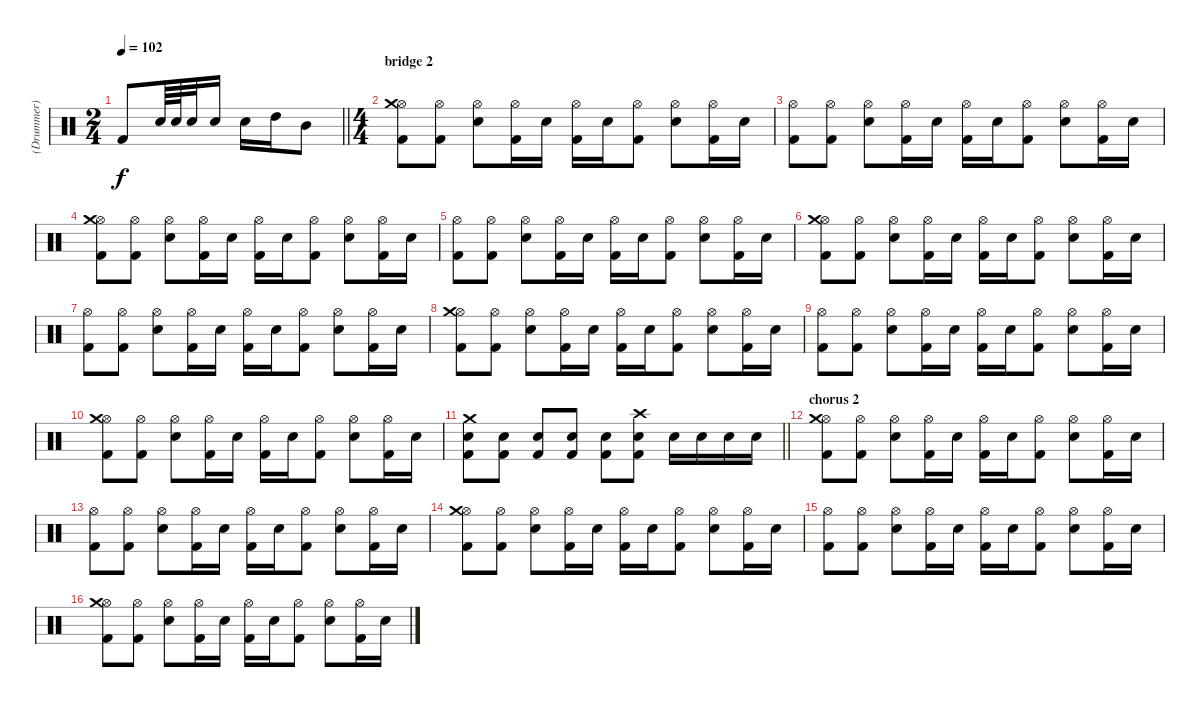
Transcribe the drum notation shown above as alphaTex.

\track ("(Drummer)" "(Drummer)") {solo instrument percussion}
\staff {score}
\articulation defaults
\ts (2 4)
\tempo 102
\clef neutral
\barLineRight lightlight
\ks c "Kick (hit) 2".8{dy f} "Electric Snare (hit)".64 "Electric Snare (hit)".64 "Electric Snare (hit)".32 "Electric Snare (hit)".16 "Electric Snare (hit)".16 "High Tom (hit)".16 "Mid Tom (hit)".8
|
\ts (4 4)
\section ("" "bridge 2")
("Hi-Hat (open)" "Crash medium (hit)" "Kick (hit) 2").8 ("Hi-Hat (open)" "Kick (hit) 2").8 ("Hi-Hat (open)" "Electric Snare (hit)").8 ("Hi-Hat (open)" "Kick (hit) 2").16 "Electric Snare (hit)".16 ("Hi-Hat (open)" "Kick (hit) 2").16 "Electric Snare (hit)".16 ("Hi-Hat (open)" "Kick (hit) 2").8 ("Hi-Hat (open)" "Electric Snare (hit)").8 ("Hi-Hat (open)" "Kick (hit) 2").16 "Electric Snare (hit)".16 |
("Hi-Hat (open)" "Kick (hit) 2").8 ("Hi-Hat (open)" "Kick (hit) 2").8 ("Hi-Hat (open)" "Electric Snare (hit)").8 ("Hi-Hat (open)" "Kick (hit) 2").16 "Electric Snare (hit)".16 ("Hi-Hat (open)" "Kick (hit) 2").16 "Electric Snare (hit)".16 ("Hi-Hat (open)" "Kick (hit) 2").8 ("Hi-Hat (open)" "Electric Snare (hit)").8 ("Hi-Hat (open)" "Kick (hit) 2").16 "Electric Snare (hit)".16 |
("Hi-Hat (open)" "Crash medium (hit)" "Kick (hit) 2").8 ("Hi-Hat (open)" "Kick (hit) 2").8 ("Hi-Hat (open)" "Electric Snare (hit)").8 ("Hi-Hat (open)" "Kick (hit) 2").16 "Electric Snare (hit)".16 ("Hi-Hat (open)" "Kick (hit) 2").16 "Electric Snare (hit)".16 ("Hi-Hat (open)" "Kick (hit) 2").8 ("Hi-Hat (open)" "Electric Snare (hit)").8 ("Hi-Hat (open)" "Kick (hit) 2").16 "Electric Snare (hit)".16 |
("Hi-Hat (open)" "Kick (hit) 2").8 ("Hi-Hat (open)" "Kick (hit) 2").8 ("Hi-Hat (open)" "Electric Snare (hit)").8 ("Hi-Hat (open)" "Kick (hit) 2").16 "Electric Snare (hit)".16 ("Hi-Hat (open)" "Kick (hit) 2").16 "Electric Snare (hit)".16 ("Hi-Hat (open)" "Kick (hit) 2").8 ("Hi-Hat (open)" "Electric Snare (hit)").8 ("Hi-Hat (open)" "Kick (hit) 2").16 "Electric Snare (hit)".16 |
("Hi-Hat (open)" "Crash medium (hit)" "Kick (hit) 2").8 ("Hi-Hat (open)" "Kick (hit) 2").8 ("Hi-Hat (open)" "Electric Snare (hit)").8 ("Hi-Hat (open)" "Kick (hit) 2").16 "Electric Snare (hit)".16 ("Hi-Hat (open)" "Kick (hit) 2").16 "Electric Snare (hit)".16 ("Hi-Hat (open)" "Kick (hit) 2").8 ("Hi-Hat (open)" "Electric Snare (hit)").8 ("Hi-Hat (open)" "Kick (hit) 2").16 "Electric Snare (hit)".16 |
("Hi-Hat (open)" "Kick (hit) 2").8 ("Hi-Hat (open)" "Kick (hit) 2").8 ("Hi-Hat (open)" "Electric Snare (hit)").8 ("Hi-Hat (open)" "Kick (hit) 2").16 "Electric Snare (hit)".16 ("Hi-Hat (open)" "Kick (hit) 2").16 "Electric Snare (hit)".16 ("Hi-Hat (open)" "Kick (hit) 2").8 ("Hi-Hat (open)" "Electric Snare (hit)").8 ("Hi-Hat (open)" "Kick (hit) 2").16 "Electric Snare (hit)".16 |
("Hi-Hat (open)" "Crash medium (hit)" "Kick (hit) 2").8 ("Hi-Hat (open)" "Kick (hit) 2").8 ("Hi-Hat (open)" "Electric Snare (hit)").8 ("Hi-Hat (open)" "Kick (hit) 2").16 "Electric Snare (hit)".16 ("Hi-Hat (open)" "Kick (hit) 2").16 "Electric Snare (hit)".16 ("Hi-Hat (open)" "Kick (hit) 2").8 ("Hi-Hat (open)" "Electric Snare (hit)").8 ("Hi-Hat (open)" "Kick (hit) 2").16 "Electric Snare (hit)".16 |
("Hi-Hat (open)" "Kick (hit) 2").8 ("Hi-Hat (open)" "Kick (hit) 2").8 ("Hi-Hat (open)" "Electric Snare (hit)").8 ("Hi-Hat (open)" "Kick (hit) 2").16 "Electric Snare (hit)".16 ("Hi-Hat (open)" "Kick (hit) 2").16 "Electric Snare (hit)".16 ("Hi-Hat (open)" "Kick (hit) 2").8 ("Hi-Hat (open)" "Electric Snare (hit)").8 ("Hi-Hat (open)" "Kick (hit) 2").16 "Electric Snare (hit)".16 |
("Hi-Hat (open)" "Crash medium (hit)" "Kick (hit) 2").8 ("Hi-Hat (open)" "Kick (hit) 2").8 ("Hi-Hat (open)" "Electric Snare (hit)").8 ("Hi-Hat (open)" "Kick (hit) 2").16 "Electric Snare (hit)".16 ("Hi-Hat (open)" "Kick (hit) 2").16 "Electric Snare (hit)".16 ("Hi-Hat (open)" "Kick (hit) 2").8 ("Hi-Hat (open)" "Electric Snare (hit)").8 ("Hi-Hat (open)" "Kick (hit) 2").16 "Electric Snare (hit)".16 |
\barLineRight lightlight
("Crash medium (hit)" "Electric Snare (hit)" "Kick (hit) 2").8 ("Electric Snare (hit)" "Kick (hit) 2").8 ("Electric Snare (hit)" "Kick (hit) 2").8 ("Electric Snare (hit)" "Kick (hit) 2").8 ("Electric Snare (hit)" "Kick (hit) 2").8 ("Crash high (hit)" "Electric Snare (hit)" "Kick (hit) 2").8 "Electric Snare (hit)".16 "Electric Snare (hit)".16 "Electric Snare (hit)".16 "Electric Snare (hit)".16 |
\section ("" "chorus 2")
("Hi-Hat (open)" "Crash medium (hit)" "Kick (hit) 2").8 ("Hi-Hat (open)" "Kick (hit) 2").8 ("Hi-Hat (open)" "Electric Snare (hit)").8 ("Hi-Hat (open)" "Kick (hit) 2").16 "Electric Snare (hit)".16 ("Hi-Hat (open)" "Kick (hit) 2").16 "Electric Snare (hit)".16 ("Hi-Hat (open)" "Kick (hit) 2").8 ("Hi-Hat (open)" "Electric Snare (hit)").8 ("Hi-Hat (open)" "Kick (hit) 2").16 "Electric Snare (hit)".16 |
("Hi-Hat (open)" "Kick (hit) 2").8 ("Hi-Hat (open)" "Kick (hit) 2").8 ("Hi-Hat (open)" "Electric Snare (hit)").8 ("Hi-Hat (open)" "Kick (hit) 2").16 "Electric Snare (hit)".16 ("Hi-Hat (open)" "Kick (hit) 2").16 "Electric Snare (hit)".16 ("Hi-Hat (open)" "Kick (hit) 2").8 ("Hi-Hat (open)" "Electric Snare (hit)").8 ("Hi-Hat (open)" "Kick (hit) 2").16 "Electric Snare (hit)".16 |
("Hi-Hat (open)" "Crash medium (hit)" "Kick (hit) 2").8 ("Hi-Hat (open)" "Kick (hit) 2").8 ("Hi-Hat (open)" "Electric Snare (hit)").8 ("Hi-Hat (open)" "Kick (hit) 2").16 "Electric Snare (hit)".16 ("Hi-Hat (open)" "Kick (hit) 2").16 "Electric Snare (hit)".16 ("Hi-Hat (open)" "Kick (hit) 2").8 ("Hi-Hat (open)" "Electric Snare (hit)").8 ("Hi-Hat (open)" "Kick (hit) 2").16 "Electric Snare (hit)".16 |
("Hi-Hat (open)" "Kick (hit) 2").8 ("Hi-Hat (open)" "Kick (hit) 2").8 ("Hi-Hat (open)" "Electric Snare (hit)").8 ("Hi-Hat (open)" "Kick (hit) 2").16 "Electric Snare (hit)".16 ("Hi-Hat (open)" "Kick (hit) 2").16 "Electric Snare (hit)".16 ("Hi-Hat (open)" "Kick (hit) 2").8 ("Hi-Hat (open)" "Electric Snare (hit)").8 ("Hi-Hat (open)" "Kick (hit) 2").16 "Electric Snare (hit)".16 |
("Hi-Hat (open)" "Crash medium (hit)" "Kick (hit) 2").8 ("Hi-Hat (open)" "Kick (hit) 2").8 ("Hi-Hat (open)" "Electric Snare (hit)").8 ("Hi-Hat (open)" "Kick (hit) 2").16 "Electric Snare (hit)".16 ("Hi-Hat (open)" "Kick (hit) 2").16 "Electric Snare (hit)".16 ("Hi-Hat (open)" "Kick (hit) 2").8 ("Hi-Hat (open)" "Electric Snare (hit)").8 ("Hi-Hat (open)" "Kick (hit) 2").16 "Electric Snare (hit)".16
